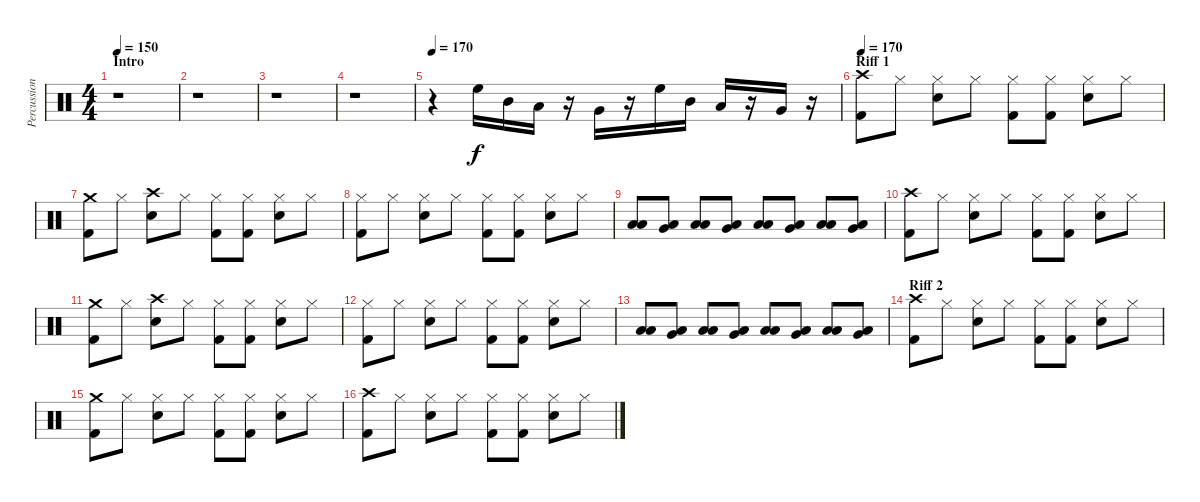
\track ("Percussion" "Percussion") {instrument percussion}
\staff {score}
\articulation defaults
\ts (4 4)
\section ("" "Intro")
\tempo 150
\clef neutral
\ks c
r.1{dy f} |
r.1 |
r.1 |
r.1 |
\tempo 170
r.4 "High Floor Tom (hit)".16 "Mid Tom (hit)".16 "Low Tom (hit)".16 r.16 "Very Low Tom (hit)".16 r.16 "High Floor Tom (hit)".16 "Mid Tom (hit)".16 "Low Tom (hit)".16 r.16 "Very Low Tom (hit)".16 r.16 |
\section ("" "Riff 1")
\tempo 170
("Crash high (hit)" "Kick (hit) 2").8 "Hi-Hat (closed)".8 ("Hi-Hat (closed)" "Snare (hit) 2").8 "Hi-Hat (closed)".8 ("Hi-Hat (closed)" "Kick (hit) 2").8 ("Hi-Hat (closed)" "Kick (hit) 2").8 ("Hi-Hat (closed)" "Snare (hit) 2").8 "Hi-Hat (closed)".8 |
("Crash medium (hit)" "Kick (hit) 2").8 "Hi-Hat (closed)".8 ("Crash high (hit)" "Snare (hit) 2").8 "Hi-Hat (closed)".8 ("Hi-Hat (closed)" "Kick (hit) 2").8 ("Hi-Hat (closed)" "Kick (hit) 2").8 ("Hi-Hat (closed)" "Snare (hit) 2").8 "Hi-Hat (closed)".8 |
("Hi-Hat (closed)" "Kick (hit) 2").8 "Hi-Hat (closed)".8 ("Hi-Hat (closed)" "Snare (hit) 2").8 "Hi-Hat (closed)".8 ("Hi-Hat (closed)" "Kick (hit) 2").8 ("Hi-Hat (closed)" "Kick (hit) 2").8 ("Hi-Hat (closed)" "Snare (hit) 2").8 "Hi-Hat (closed)".8 |
("Low Tom (hit)" "Low Floor Tom (hit)").8 ("Very Low Tom (hit)" "Low Floor Tom (hit)").8 ("Low Tom (hit)" "Low Floor Tom (hit)").8 ("Very Low Tom (hit)" "Low Floor Tom (hit)").8 ("Low Tom (hit)" "Low Floor Tom (hit)").8 ("Very Low Tom (hit)" "Low Floor Tom (hit)").8 ("Low Tom (hit)" "Low Floor Tom (hit)").8 ("Very Low Tom (hit)" "Low Floor Tom (hit)").8 |
("Crash high (hit)" "Kick (hit) 2").8 "Hi-Hat (closed)".8 ("Hi-Hat (closed)" "Snare (hit) 2").8 "Hi-Hat (closed)".8 ("Hi-Hat (closed)" "Kick (hit) 2").8 ("Hi-Hat (closed)" "Kick (hit) 2").8 ("Hi-Hat (closed)" "Snare (hit) 2").8 "Hi-Hat (closed)".8 |
("Crash medium (hit)" "Kick (hit) 2").8 "Hi-Hat (closed)".8 ("Crash high (hit)" "Snare (hit) 2").8 "Hi-Hat (closed)".8 ("Hi-Hat (closed)" "Kick (hit) 2").8 ("Hi-Hat (closed)" "Kick (hit) 2").8 ("Hi-Hat (closed)" "Snare (hit) 2").8 "Hi-Hat (closed)".8 |
("Hi-Hat (closed)" "Kick (hit) 2").8 "Hi-Hat (closed)".8 ("Hi-Hat (closed)" "Snare (hit) 2").8 "Hi-Hat (closed)".8 ("Hi-Hat (closed)" "Kick (hit) 2").8 ("Hi-Hat (closed)" "Kick (hit) 2").8 ("Hi-Hat (closed)" "Snare (hit) 2").8 "Hi-Hat (closed)".8 |
("Low Tom (hit)" "Low Floor Tom (hit)").8 ("Very Low Tom (hit)" "Low Floor Tom (hit)").8 ("Low Tom (hit)" "Low Floor Tom (hit)").8 ("Very Low Tom (hit)" "Low Floor Tom (hit)").8 ("Low Tom (hit)" "Low Floor Tom (hit)").8 ("Very Low Tom (hit)" "Low Floor Tom (hit)").8 ("Low Tom (hit)" "Low Floor Tom (hit)").8 ("Very Low Tom (hit)" "Low Floor Tom (hit)").8 |
\section ("" "Riff 2")
("Crash high (hit)" "Kick (hit) 2").8 "Hi-Hat (closed)".8 ("Hi-Hat (closed)" "Snare (hit) 2").8 "Hi-Hat (closed)".8 ("Hi-Hat (closed)" "Kick (hit) 2").8 ("Hi-Hat (closed)" "Kick (hit) 2").8 ("Hi-Hat (closed)" "Snare (hit) 2").8 "Hi-Hat (closed)".8 |
("Crash medium (hit)" "Kick (hit) 2").8 "Hi-Hat (closed)".8 ("Hi-Hat (closed)" "Snare (hit) 2").8 "Hi-Hat (closed)".8 ("Hi-Hat (closed)" "Kick (hit) 2").8 ("Hi-Hat (closed)" "Kick (hit) 2").8 ("Hi-Hat (closed)" "Snare (hit) 2").8 "Hi-Hat (closed)".8 |
("Crash high (hit)" "Kick (hit) 2").8 "Hi-Hat (closed)".8 ("Hi-Hat (closed)" "Snare (hit) 2").8 "Hi-Hat (closed)".8 ("Hi-Hat (closed)" "Kick (hit) 2").8 ("Hi-Hat (closed)" "Kick (hit) 2").8 ("Hi-Hat (closed)" "Snare (hit) 2").8 "Hi-Hat (closed)".8
